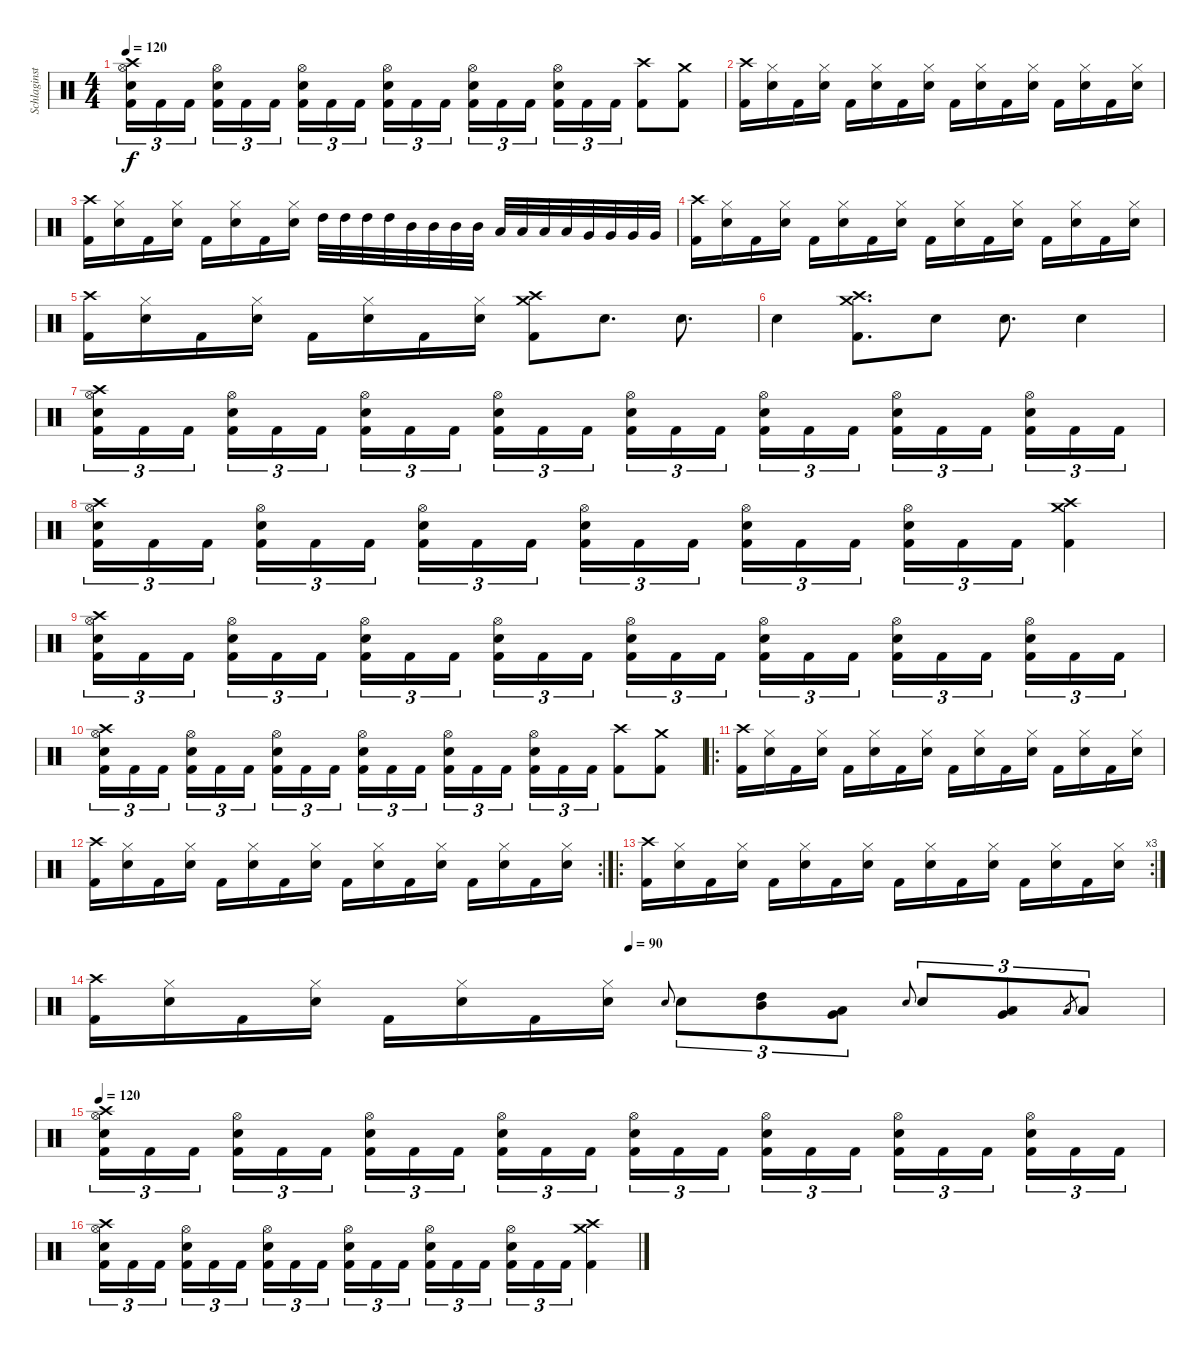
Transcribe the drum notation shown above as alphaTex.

\track ("Schlaginstrumente - Auswahl" "Schlaginst") {instrument percussion}
\staff {score}
\articulation defaults
\ts (4 4)
\tempo 120
\clef neutral
\ks c
("Crash high (hit)" "Hi-Hat (open)" "Snare (hit) 2" "Kick (hit) 2").16{tu (3 2) dy f} "Kick (hit) 2".16{tu (3 2)} "Kick (hit) 2".16{tu (3 2) beam splitsecondary} ("Hi-Hat (open)" "Snare (hit) 2" "Kick (hit) 2").16{tu (3 2)} "Kick (hit) 2".16{tu (3 2)} "Kick (hit) 2".16{tu (3 2)} ("Hi-Hat (open)" "Snare (hit) 2" "Kick (hit) 2").16{tu (3 2)} "Kick (hit) 2".16{tu (3 2)} "Kick (hit) 2".16{tu (3 2) beam splitsecondary} ("Hi-Hat (open)" "Snare (hit) 2" "Kick (hit) 2").16{tu (3 2)} "Kick (hit) 2".16{tu (3 2)} "Kick (hit) 2".16{tu (3 2)} ("Hi-Hat (open)" "Snare (hit) 2" "Kick (hit) 2").16{tu (3 2)} "Kick (hit) 2".16{tu (3 2)} "Kick (hit) 2".16{tu (3 2) beam splitsecondary} ("Hi-Hat (open)" "Snare (hit) 2" "Kick (hit) 2").16{tu (3 2)} "Kick (hit) 2".16{tu (3 2)} "Kick (hit) 2".16{tu (3 2)} ("Crash high (hit)" "Kick (hit) 2").8 ("Crash medium (hit)" "Kick (hit) 2").8 |
("Crash high (hit)" "Kick (hit) 2").16 ("Hi-Hat (closed)" "Snare (hit) 2").16 "Kick (hit) 2".16 ("Hi-Hat (closed)" "Snare (hit) 2").16 "Kick (hit) 2".16 ("Hi-Hat (closed)" "Snare (hit) 2").16 "Kick (hit) 2".16 ("Hi-Hat (closed)" "Snare (hit) 2").16 "Kick (hit) 2".16 ("Hi-Hat (closed)" "Snare (hit) 2").16 "Kick (hit) 2".16 ("Hi-Hat (closed)" "Snare (hit) 2").16 "Kick (hit) 2".16 ("Hi-Hat (closed)" "Snare (hit) 2").16 "Kick (hit) 2".16 ("Hi-Hat (closed)" "Snare (hit) 2").16 |
("Crash high (hit)" "Kick (hit) 2").16 ("Hi-Hat (closed)" "Snare (hit) 2").16 "Kick (hit) 2".16 ("Hi-Hat (closed)" "Snare (hit) 2").16 "Kick (hit) 2".16 ("Hi-Hat (closed)" "Snare (hit) 2").16 "Kick (hit) 2".16 ("Hi-Hat (closed)" "Snare (hit) 2").16 "High Tom (hit)".32 "High Tom (hit)".32 "High Tom (hit)".32 "High Tom (hit)".32 "Mid Tom (hit)".32 "Mid Tom (hit)".32 "Mid Tom (hit)".32 "Mid Tom (hit)".32 "Low Tom (hit)".32 "Low Tom (hit)".32 "Low Tom (hit)".32 "Low Tom (hit)".32 "Very Low Tom (hit)".32 "Very Low Tom (hit)".32 "Very Low Tom (hit)".32 "Very Low Tom (hit)".32 |
("Crash high (hit)" "Kick (hit) 2").16 ("Hi-Hat (closed)" "Snare (hit) 2").16 "Kick (hit) 2".16 ("Hi-Hat (closed)" "Snare (hit) 2").16 "Kick (hit) 2".16 ("Hi-Hat (closed)" "Snare (hit) 2").16 "Kick (hit) 2".16 ("Hi-Hat (closed)" "Snare (hit) 2").16 "Kick (hit) 2".16 ("Hi-Hat (closed)" "Snare (hit) 2").16 "Kick (hit) 2".16 ("Hi-Hat (closed)" "Snare (hit) 2").16 "Kick (hit) 2".16 ("Hi-Hat (closed)" "Snare (hit) 2").16 "Kick (hit) 2".16 ("Hi-Hat (closed)" "Snare (hit) 2").16 |
("Crash high (hit)" "Kick (hit) 2").16 ("Hi-Hat (closed)" "Snare (hit) 2").16 "Kick (hit) 2".16 ("Hi-Hat (closed)" "Snare (hit) 2").16 "Kick (hit) 2".16 ("Hi-Hat (closed)" "Snare (hit) 2").16 "Kick (hit) 2".16 ("Hi-Hat (closed)" "Snare (hit) 2").16 ("Crash medium (hit)" "Crash high (hit)" "Kick (hit) 2").8 "Snare (hit) 2".8{d} "Snare (hit) 2".8{d} |
"Snare (hit) 2".4 ("Crash medium (hit)" "Crash high (hit)" "Kick (hit) 2").8{d} "Snare (hit) 2".8 "Snare (hit) 2".8{d} "Snare (hit) 2".4 |
("Crash high (hit)" "Hi-Hat (open)" "Snare (hit) 2" "Kick (hit) 2").16{tu (3 2)} "Kick (hit) 2".16{tu (3 2)} "Kick (hit) 2".16{tu (3 2) beam splitsecondary} ("Hi-Hat (open)" "Snare (hit) 2" "Kick (hit) 2").16{tu (3 2)} "Kick (hit) 2".16{tu (3 2)} "Kick (hit) 2".16{tu (3 2)} ("Hi-Hat (open)" "Snare (hit) 2" "Kick (hit) 2").16{tu (3 2)} "Kick (hit) 2".16{tu (3 2)} "Kick (hit) 2".16{tu (3 2) beam splitsecondary} ("Hi-Hat (open)" "Snare (hit) 2" "Kick (hit) 2").16{tu (3 2)} "Kick (hit) 2".16{tu (3 2)} "Kick (hit) 2".16{tu (3 2)} ("Hi-Hat (open)" "Snare (hit) 2" "Kick (hit) 2").16{tu (3 2)} "Kick (hit) 2".16{tu (3 2)} "Kick (hit) 2".16{tu (3 2) beam splitsecondary} ("Hi-Hat (open)" "Snare (hit) 2" "Kick (hit) 2").16{tu (3 2)} "Kick (hit) 2".16{tu (3 2)} "Kick (hit) 2".16{tu (3 2)} ("Hi-Hat (open)" "Snare (hit) 2" "Kick (hit) 2").16{tu (3 2)} "Kick (hit) 2".16{tu (3 2)} "Kick (hit) 2".16{tu (3 2) beam splitsecondary} ("Hi-Hat (open)" "Snare (hit) 2" "Kick (hit) 2").16{tu (3 2)} "Kick (hit) 2".16{tu (3 2)} "Kick (hit) 2".16{tu (3 2)} |
("Crash high (hit)" "Hi-Hat (open)" "Snare (hit) 2" "Kick (hit) 2").16{tu (3 2)} "Kick (hit) 2".16{tu (3 2)} "Kick (hit) 2".16{tu (3 2) beam splitsecondary} ("Hi-Hat (open)" "Snare (hit) 2" "Kick (hit) 2").16{tu (3 2)} "Kick (hit) 2".16{tu (3 2)} "Kick (hit) 2".16{tu (3 2)} ("Hi-Hat (open)" "Snare (hit) 2" "Kick (hit) 2").16{tu (3 2)} "Kick (hit) 2".16{tu (3 2)} "Kick (hit) 2".16{tu (3 2) beam splitsecondary} ("Hi-Hat (open)" "Snare (hit) 2" "Kick (hit) 2").16{tu (3 2)} "Kick (hit) 2".16{tu (3 2)} "Kick (hit) 2".16{tu (3 2)} ("Hi-Hat (open)" "Snare (hit) 2" "Kick (hit) 2").16{tu (3 2)} "Kick (hit) 2".16{tu (3 2)} "Kick (hit) 2".16{tu (3 2) beam splitsecondary} ("Hi-Hat (open)" "Snare (hit) 2" "Kick (hit) 2").16{tu (3 2)} "Kick (hit) 2".16{tu (3 2)} "Kick (hit) 2".16{tu (3 2)} ("Crash medium (hit)" "Crash high (hit)" "Kick (hit) 2").4 |
("Crash high (hit)" "Hi-Hat (open)" "Snare (hit) 2" "Kick (hit) 2").16{tu (3 2)} "Kick (hit) 2".16{tu (3 2)} "Kick (hit) 2".16{tu (3 2) beam splitsecondary} ("Hi-Hat (open)" "Snare (hit) 2" "Kick (hit) 2").16{tu (3 2)} "Kick (hit) 2".16{tu (3 2)} "Kick (hit) 2".16{tu (3 2)} ("Hi-Hat (open)" "Snare (hit) 2" "Kick (hit) 2").16{tu (3 2)} "Kick (hit) 2".16{tu (3 2)} "Kick (hit) 2".16{tu (3 2) beam splitsecondary} ("Hi-Hat (open)" "Snare (hit) 2" "Kick (hit) 2").16{tu (3 2)} "Kick (hit) 2".16{tu (3 2)} "Kick (hit) 2".16{tu (3 2)} ("Hi-Hat (open)" "Snare (hit) 2" "Kick (hit) 2").16{tu (3 2)} "Kick (hit) 2".16{tu (3 2)} "Kick (hit) 2".16{tu (3 2) beam splitsecondary} ("Hi-Hat (open)" "Snare (hit) 2" "Kick (hit) 2").16{tu (3 2)} "Kick (hit) 2".16{tu (3 2)} "Kick (hit) 2".16{tu (3 2)} ("Hi-Hat (open)" "Snare (hit) 2" "Kick (hit) 2").16{tu (3 2)} "Kick (hit) 2".16{tu (3 2)} "Kick (hit) 2".16{tu (3 2) beam splitsecondary} ("Hi-Hat (open)" "Snare (hit) 2" "Kick (hit) 2").16{tu (3 2)} "Kick (hit) 2".16{tu (3 2)} "Kick (hit) 2".16{tu (3 2)} |
("Crash high (hit)" "Hi-Hat (open)" "Snare (hit) 2" "Kick (hit) 2").16{tu (3 2)} "Kick (hit) 2".16{tu (3 2)} "Kick (hit) 2".16{tu (3 2) beam splitsecondary} ("Hi-Hat (open)" "Snare (hit) 2" "Kick (hit) 2").16{tu (3 2)} "Kick (hit) 2".16{tu (3 2)} "Kick (hit) 2".16{tu (3 2)} ("Hi-Hat (open)" "Snare (hit) 2" "Kick (hit) 2").16{tu (3 2)} "Kick (hit) 2".16{tu (3 2)} "Kick (hit) 2".16{tu (3 2) beam splitsecondary} ("Hi-Hat (open)" "Snare (hit) 2" "Kick (hit) 2").16{tu (3 2)} "Kick (hit) 2".16{tu (3 2)} "Kick (hit) 2".16{tu (3 2)} ("Hi-Hat (open)" "Snare (hit) 2" "Kick (hit) 2").16{tu (3 2)} "Kick (hit) 2".16{tu (3 2)} "Kick (hit) 2".16{tu (3 2) beam splitsecondary} ("Hi-Hat (open)" "Snare (hit) 2" "Kick (hit) 2").16{tu (3 2)} "Kick (hit) 2".16{tu (3 2)} "Kick (hit) 2".16{tu (3 2)} ("Crash high (hit)" "Kick (hit) 2").8 ("Crash medium (hit)" "Kick (hit) 2").8 |
\ro
("Crash high (hit)" "Kick (hit) 2").16 ("Hi-Hat (closed)" "Snare (hit) 2").16 "Kick (hit) 2".16 ("Hi-Hat (closed)" "Snare (hit) 2").16 "Kick (hit) 2".16 ("Hi-Hat (closed)" "Snare (hit) 2").16 "Kick (hit) 2".16 ("Hi-Hat (closed)" "Snare (hit) 2").16 "Kick (hit) 2".16 ("Hi-Hat (closed)" "Snare (hit) 2").16 "Kick (hit) 2".16 ("Hi-Hat (closed)" "Snare (hit) 2").16 "Kick (hit) 2".16 ("Hi-Hat (closed)" "Snare (hit) 2").16 "Kick (hit) 2".16 ("Hi-Hat (closed)" "Snare (hit) 2").16 |
\rc 2
("Crash high (hit)" "Kick (hit) 2").16 ("Hi-Hat (closed)" "Snare (hit) 2").16 "Kick (hit) 2".16 ("Hi-Hat (closed)" "Snare (hit) 2").16 "Kick (hit) 2".16 ("Hi-Hat (closed)" "Snare (hit) 2").16 "Kick (hit) 2".16 ("Hi-Hat (closed)" "Snare (hit) 2").16 "Kick (hit) 2".16 ("Hi-Hat (closed)" "Snare (hit) 2").16 "Kick (hit) 2".16 ("Hi-Hat (closed)" "Snare (hit) 2").16 "Kick (hit) 2".16 ("Hi-Hat (closed)" "Snare (hit) 2").16 "Kick (hit) 2".16 ("Hi-Hat (closed)" "Snare (hit) 2").16 |
\ro
\rc 3
("Crash high (hit)" "Kick (hit) 2").16 ("Hi-Hat (closed)" "Snare (hit) 2").16 "Kick (hit) 2".16 ("Hi-Hat (closed)" "Snare (hit) 2").16 "Kick (hit) 2".16 ("Hi-Hat (closed)" "Snare (hit) 2").16 "Kick (hit) 2".16 ("Hi-Hat (closed)" "Snare (hit) 2").16 "Kick (hit) 2".16 ("Hi-Hat (closed)" "Snare (hit) 2").16 "Kick (hit) 2".16 ("Hi-Hat (closed)" "Snare (hit) 2").16 "Kick (hit) 2".16 ("Hi-Hat (closed)" "Snare (hit) 2").16 "Kick (hit) 2".16 ("Hi-Hat (closed)" "Snare (hit) 2").16 |
\tempo (90 0.5)
("Crash high (hit)" "Kick (hit) 2").16 ("Hi-Hat (closed)" "Snare (hit) 2").16 "Kick (hit) 2".16 ("Hi-Hat (closed)" "Snare (hit) 2").16 "Kick (hit) 2".16 ("Hi-Hat (closed)" "Snare (hit) 2").16 "Kick (hit) 2".16 ("Hi-Hat (closed)" "Snare (hit) 2").16 "Snare (hit) 2".8{gr onbeat} "Snare (hit) 2".8{tu (3 2)} ("Mid Tom (hit)" "High Tom (hit)").8{tu (3 2)} ("Very Low Tom (hit)" "Low Tom (hit)").8{tu (3 2)} "Snare (hit) 2".8{gr onbeat} "Snare (hit) 2".8{tu (3 2)} ("Low Tom (hit)" "Very Low Tom (hit)").8{tu (3 2)} "Low Floor Tom (hit)".8{gr} "Low Floor Tom (hit)".8{tu (3 2)} |
\tempo 120
("Crash high (hit)" "Hi-Hat (open)" "Snare (hit) 2" "Kick (hit) 2").16{tu (3 2)} "Kick (hit) 2".16{tu (3 2)} "Kick (hit) 2".16{tu (3 2) beam splitsecondary} ("Hi-Hat (open)" "Snare (hit) 2" "Kick (hit) 2").16{tu (3 2)} "Kick (hit) 2".16{tu (3 2)} "Kick (hit) 2".16{tu (3 2)} ("Hi-Hat (open)" "Snare (hit) 2" "Kick (hit) 2").16{tu (3 2)} "Kick (hit) 2".16{tu (3 2)} "Kick (hit) 2".16{tu (3 2) beam splitsecondary} ("Hi-Hat (open)" "Snare (hit) 2" "Kick (hit) 2").16{tu (3 2)} "Kick (hit) 2".16{tu (3 2)} "Kick (hit) 2".16{tu (3 2)} ("Hi-Hat (open)" "Snare (hit) 2" "Kick (hit) 2").16{tu (3 2)} "Kick (hit) 2".16{tu (3 2)} "Kick (hit) 2".16{tu (3 2) beam splitsecondary} ("Hi-Hat (open)" "Snare (hit) 2" "Kick (hit) 2").16{tu (3 2)} "Kick (hit) 2".16{tu (3 2)} "Kick (hit) 2".16{tu (3 2)} ("Hi-Hat (open)" "Snare (hit) 2" "Kick (hit) 2").16{tu (3 2)} "Kick (hit) 2".16{tu (3 2)} "Kick (hit) 2".16{tu (3 2) beam splitsecondary} ("Hi-Hat (open)" "Snare (hit) 2" "Kick (hit) 2").16{tu (3 2)} "Kick (hit) 2".16{tu (3 2)} "Kick (hit) 2".16{tu (3 2)} |
("Crash high (hit)" "Hi-Hat (open)" "Snare (hit) 2" "Kick (hit) 2").16{tu (3 2)} "Kick (hit) 2".16{tu (3 2)} "Kick (hit) 2".16{tu (3 2) beam splitsecondary} ("Hi-Hat (open)" "Snare (hit) 2" "Kick (hit) 2").16{tu (3 2)} "Kick (hit) 2".16{tu (3 2)} "Kick (hit) 2".16{tu (3 2)} ("Hi-Hat (open)" "Snare (hit) 2" "Kick (hit) 2").16{tu (3 2)} "Kick (hit) 2".16{tu (3 2)} "Kick (hit) 2".16{tu (3 2) beam splitsecondary} ("Hi-Hat (open)" "Snare (hit) 2" "Kick (hit) 2").16{tu (3 2)} "Kick (hit) 2".16{tu (3 2)} "Kick (hit) 2".16{tu (3 2)} ("Hi-Hat (open)" "Snare (hit) 2" "Kick (hit) 2").16{tu (3 2)} "Kick (hit) 2".16{tu (3 2)} "Kick (hit) 2".16{tu (3 2) beam splitsecondary} ("Hi-Hat (open)" "Snare (hit) 2" "Kick (hit) 2").16{tu (3 2)} "Kick (hit) 2".16{tu (3 2)} "Kick (hit) 2".16{tu (3 2)} ("Crash medium (hit)" "Crash high (hit)" "Kick (hit) 2").4
